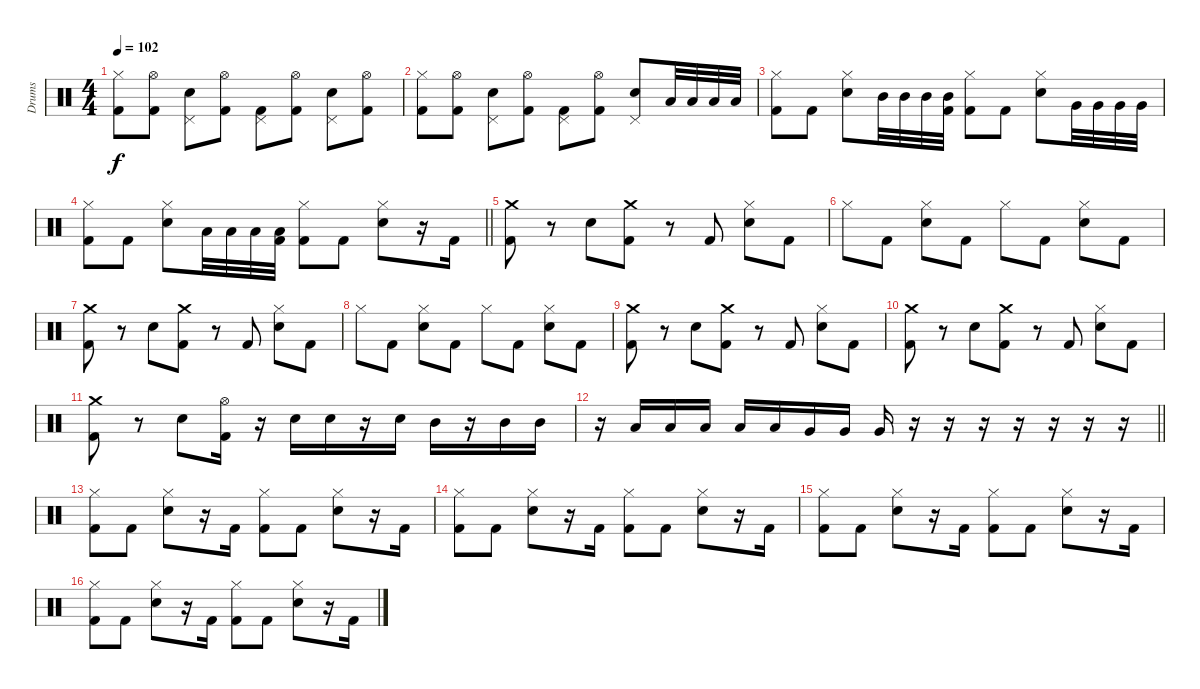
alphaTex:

\track ("Drums" "Drums") {instrument percussion}
\staff {score}
\articulation defaults
\ts (4 4)
\tempo 102
\clef neutral
\ks c
("Hi-Hat (closed)" "Kick (hit) 2").8{dy f} ("Hi-Hat (open)" "Kick (hit) 2").8 ("Pedal Hi-Hat (hit)" "Snare (hit) 2").8 ("Hi-Hat (open)" "Kick (hit) 2").8 ("Pedal Hi-Hat (hit)" "Kick (hit) 2").8 ("Hi-Hat (open)" "Kick (hit) 2").8 ("Pedal Hi-Hat (hit)" "Snare (hit) 2").8 ("Hi-Hat (open)" "Kick (hit) 2").8 |
("Hi-Hat (closed)" "Kick (hit) 2").8 ("Hi-Hat (open)" "Kick (hit) 2").8 ("Pedal Hi-Hat (hit)" "Snare (hit) 2").8 ("Hi-Hat (open)" "Kick (hit) 2").8 ("Pedal Hi-Hat (hit)" "Kick (hit) 2").8 ("Hi-Hat (open)" "Kick (hit) 2").8 ("Pedal Hi-Hat (hit)" "Snare (hit) 2").8 "Low Tom (hit)".32 "Low Tom (hit)".32 "Low Tom (hit)".32 "Low Tom (hit)".32 |
("Hi-Hat (closed)" "Kick (hit) 2").8 "Kick (hit) 2".8 ("Hi-Hat (closed)" "Snare (hit) 2").8 "Mid Tom (hit)".32 "Mid Tom (hit)".32 "Mid Tom (hit)".32 ("Mid Tom (hit)" "Kick (hit) 2").32 ("Hi-Hat (closed)" "Kick (hit) 2").8 "Kick (hit) 2".8 ("Hi-Hat (closed)" "Snare (hit) 2").8 "Very Low Tom (hit)".32 "Very Low Tom (hit)".32 "Very Low Tom (hit)".32 "Very Low Tom (hit)".32 |
\barLineRight lightlight
("Hi-Hat (closed)" "Kick (hit) 2").8 "Kick (hit) 2".8 ("Hi-Hat (closed)" "Snare (hit) 2").8 "Low Floor Tom (hit)".32 "Low Floor Tom (hit)".32 "Low Floor Tom (hit)".32 ("Low Floor Tom (hit)" "Kick (hit) 2").32 ("Hi-Hat (closed)" "Kick (hit) 2").8 "Kick (hit) 2".8 ("Hi-Hat (closed)" "Snare (hit) 2").8 r.16 "Kick (hit) 2".16 |
("Crash medium (hit)" "Kick (hit) 2").8 r.8 "Snare (hit) 2".8 ("Crash medium (hit)" "Kick (hit) 2").8 r.8 "Kick (hit) 2".8 ("Hi-Hat (closed)" "Snare (hit) 2").8 "Kick (hit) 2".8 |
"Hi-Hat (closed)".8 "Kick (hit) 2".8 ("Hi-Hat (closed)" "Snare (hit) 2").8 "Kick (hit) 2".8 "Hi-Hat (closed)".8 "Kick (hit) 2".8 ("Hi-Hat (closed)" "Snare (hit) 2").8 "Kick (hit) 2".8 |
("Crash medium (hit)" "Kick (hit) 2").8 r.8 "Snare (hit) 2".8 ("Crash medium (hit)" "Kick (hit) 2").8 r.8 "Kick (hit) 2".8 ("Hi-Hat (closed)" "Snare (hit) 2").8 "Kick (hit) 2".8 |
"Hi-Hat (closed)".8 "Kick (hit) 2".8 ("Hi-Hat (closed)" "Snare (hit) 2").8 "Kick (hit) 2".8 "Hi-Hat (closed)".8 "Kick (hit) 2".8 ("Hi-Hat (closed)" "Snare (hit) 2").8 "Kick (hit) 2".8 |
("Crash medium (hit)" "Kick (hit) 2").8 r.8 "Snare (hit) 2".8 ("Crash medium (hit)" "Kick (hit) 2").8 r.8 "Kick (hit) 2".8 ("Hi-Hat (closed)" "Snare (hit) 2").8 "Kick (hit) 2".8 |
("Crash medium (hit)" "Kick (hit) 2").8 r.8 "Snare (hit) 2".8 ("Crash medium (hit)" "Kick (hit) 2").8 r.8 "Kick (hit) 2".8 ("Hi-Hat (closed)" "Snare (hit) 2").8 "Kick (hit) 2".8 |
("Crash medium (hit)" "Kick (hit) 2").8 r.8 "Snare (hit) 2".8 ("Hi-Hat (open)" "Kick (hit) 2").16 r.16 "Snare (hit) 2".16 "Snare (hit) 2".16 r.16 "Snare (hit) 2".16 "Mid Tom (hit)".16 r.16 "Mid Tom (hit)".16 "Mid Tom (hit)".16 |
\barLineRight lightlight
r.16 "Low Tom (hit)".16 "Low Tom (hit)".16 "Low Tom (hit)".16 "Low Tom (hit)".16 "Low Tom (hit)".16 "Very Low Tom (hit)".16 "Very Low Tom (hit)".16 "Very Low Tom (hit)".16 r.16 r.16 r.16 r.16 r.16 r.16 r.16 |
("Hi-Hat (closed)" "Kick (hit) 2").8 "Kick (hit) 2".8 ("Hi-Hat (closed)" "Snare (hit) 2").8 r.16 "Kick (hit) 2".16 ("Hi-Hat (closed)" "Kick (hit) 2").8 "Kick (hit) 2".8 ("Hi-Hat (closed)" "Snare (hit) 2").8 r.16 "Kick (hit) 2".16 |
("Hi-Hat (closed)" "Kick (hit) 2").8 "Kick (hit) 2".8 ("Hi-Hat (closed)" "Snare (hit) 2").8 r.16 "Kick (hit) 2".16 ("Hi-Hat (closed)" "Kick (hit) 2").8 "Kick (hit) 2".8 ("Hi-Hat (closed)" "Snare (hit) 2").8 r.16 "Kick (hit) 2".16 |
("Hi-Hat (closed)" "Kick (hit) 2").8 "Kick (hit) 2".8 ("Hi-Hat (closed)" "Snare (hit) 2").8 r.16 "Kick (hit) 2".16 ("Hi-Hat (closed)" "Kick (hit) 2").8 "Kick (hit) 2".8 ("Hi-Hat (closed)" "Snare (hit) 2").8 r.16 "Kick (hit) 2".16 |
("Hi-Hat (closed)" "Kick (hit) 2").8 "Kick (hit) 2".8 ("Hi-Hat (closed)" "Snare (hit) 2").8 r.16 "Kick (hit) 2".16 ("Hi-Hat (closed)" "Kick (hit) 2").8 "Kick (hit) 2".8 ("Hi-Hat (closed)" "Snare (hit) 2").8 r.16 "Kick (hit) 2".16
